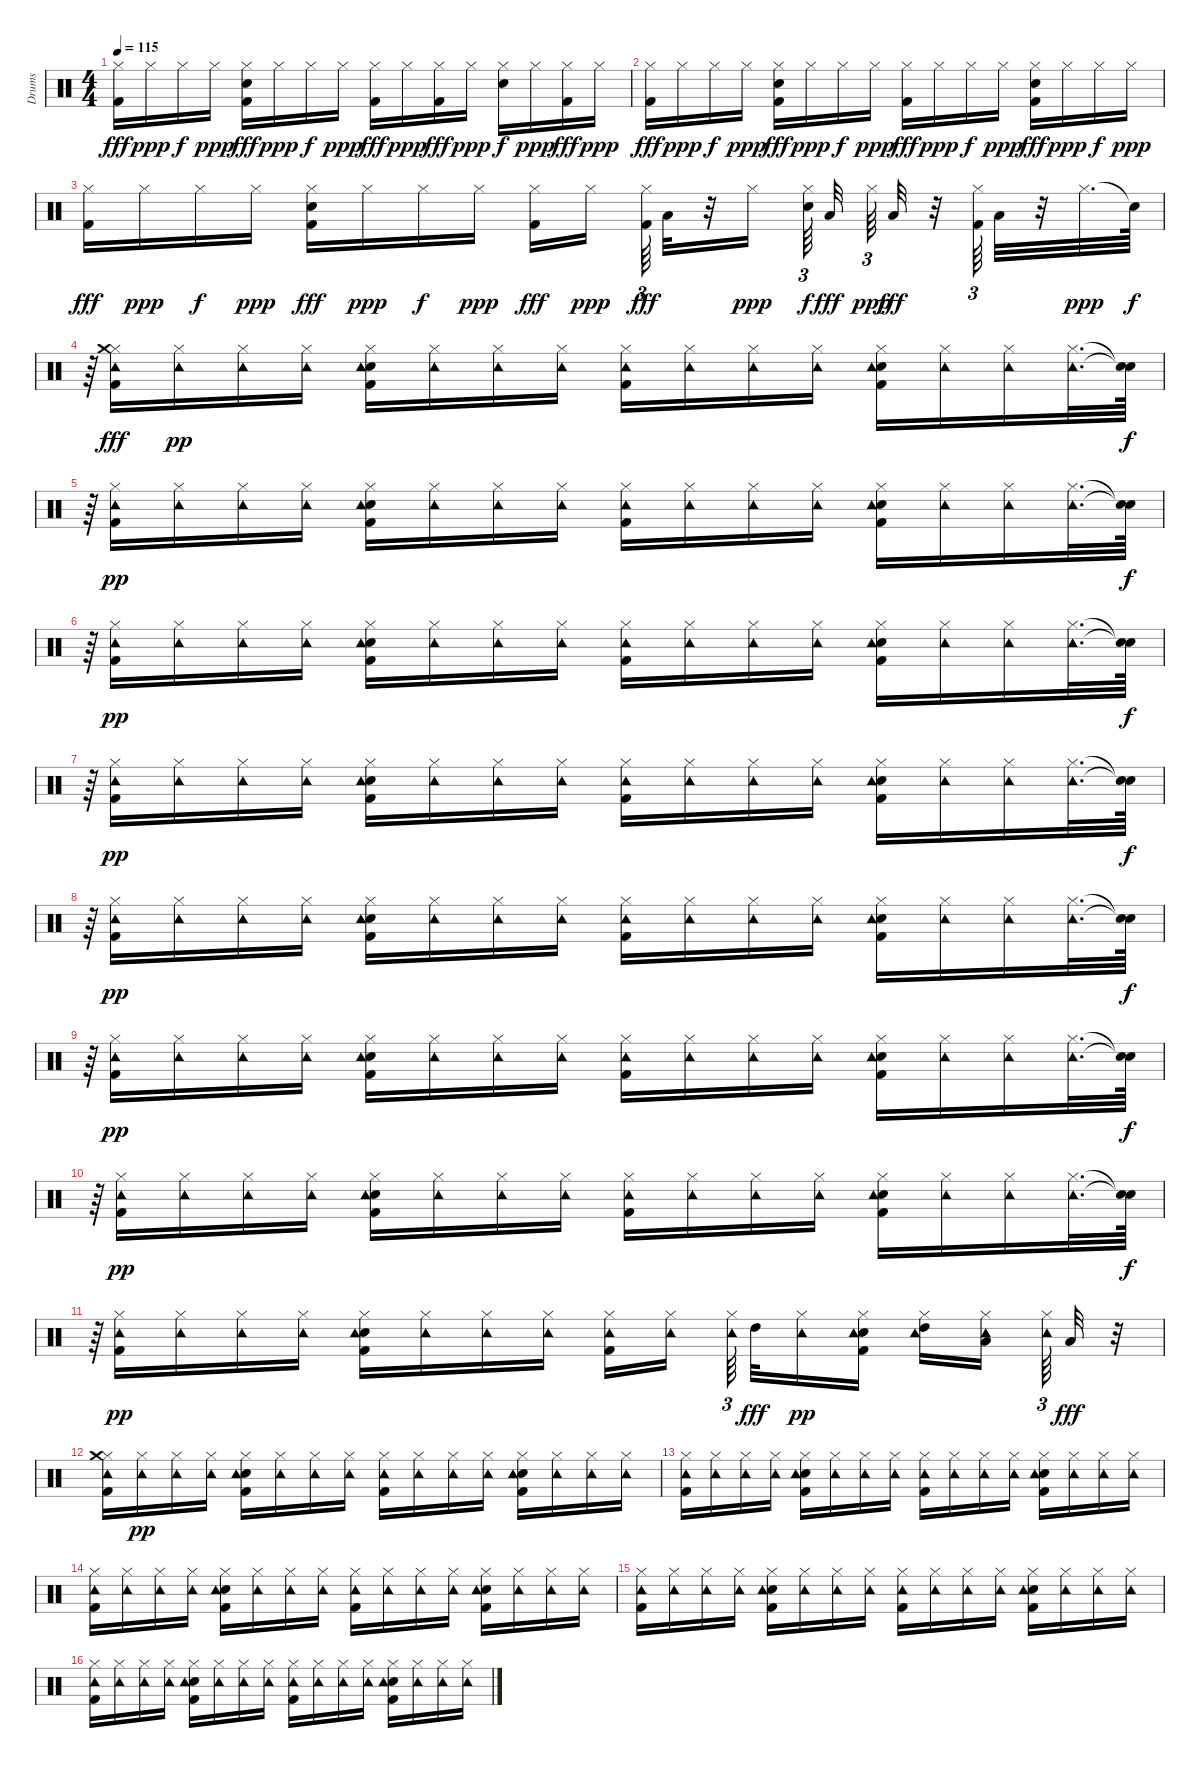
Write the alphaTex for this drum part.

\track ("Drums" "Drums") {instrument percussion}
\staff {score}
\articulation defaults
\ts (4 4)
\tempo 115
\clef neutral
\ks c
("Kick (hit) 2" "Hi-Hat (closed)").16{dy fff} "Hi-Hat (closed)".16{dy ppp} "Hi-Hat (closed)".16{dy f} "Hi-Hat (closed)".16{dy ppp} ("Kick (hit) 2" "Snare (hit) 2" "Hi-Hat (closed)").16{dy fff} "Hi-Hat (closed)".16{dy ppp} "Hi-Hat (closed)".16{dy f} "Hi-Hat (closed)".16{dy ppp} ("Kick (hit) 2" "Hi-Hat (closed)").16{dy fff} "Hi-Hat (closed)".16{dy ppp} ("Kick (hit) 2" "Hi-Hat (closed)").16{dy fff} "Hi-Hat (closed)".16{dy ppp} ("Snare (hit) 2" "Hi-Hat (closed)").16{dy f} "Hi-Hat (closed)".16{dy ppp} ("Kick (hit) 2" "Hi-Hat (closed)").16{dy fff} "Hi-Hat (closed)".16{dy ppp} |
("Kick (hit) 2" "Hi-Hat (closed)").16{dy fff} "Hi-Hat (closed)".16{dy ppp} "Hi-Hat (closed)".16{dy f} "Hi-Hat (closed)".16{dy ppp} ("Kick (hit) 2" "Snare (hit) 2" "Hi-Hat (closed)").16{dy fff} "Hi-Hat (closed)".16{dy ppp} "Hi-Hat (closed)".16{dy f} "Hi-Hat (closed)".16{dy ppp} ("Kick (hit) 2" "Hi-Hat (closed)").16{dy fff} "Hi-Hat (closed)".16{dy ppp} "Hi-Hat (closed)".16{dy f} "Hi-Hat (closed)".16{dy ppp} ("Kick (hit) 2" "Snare (hit) 2" "Hi-Hat (closed)").16{dy fff} "Hi-Hat (closed)".16{dy ppp} "Hi-Hat (closed)".16{dy f} "Hi-Hat (closed)".16{dy ppp} |
("Kick (hit) 2" "Hi-Hat (closed)").16{dy fff} "Hi-Hat (closed)".16{dy ppp} "Hi-Hat (closed)".16{dy f} "Hi-Hat (closed)".16{dy ppp} ("Kick (hit) 2" "Snare (hit) 2" "Hi-Hat (closed)").16{dy fff} "Hi-Hat (closed)".16{dy ppp} "Hi-Hat (closed)".16{dy f} "Hi-Hat (closed)".16{dy ppp} ("Kick (hit) 2" "Hi-Hat (closed)").16{dy fff} "Hi-Hat (closed)".16{dy ppp beam splitsecondary} ("Kick (hit) 2" "Hi-Hat (closed)").64{tu (3 2) dy fff} "Low Tom (hit)".32 r.32 "Hi-Hat (closed)".16{dy ppp} ("Snare (hit) 2" "Hi-Hat (closed)").64{tu (3 2) dy f beam splitsecondary} "Low Tom (hit)".32{dy fff beam splitsecondary} "Hi-Hat (closed)".64{tu (3 2) dy ppp} "Low Tom (hit)".32{dy fff} r.32 ("Kick (hit) 2" "Hi-Hat (closed)").64{tu (3 2)} "Low Floor Tom (hit)".32 r.32 "Hi-Hat (closed)".32{d dy ppp} "Snare (hit)"{t}.64{dy f} |
r.64{tu (3 2)} ("Kick (hit) 2" "Hi-Hat (closed)" "Tambourine (hit)" "Crash medium (hit)").16{dy fff} ("Hi-Hat (closed)" "Tambourine (hit)").16{dy pp} ("Hi-Hat (closed)" "Tambourine (hit)").16 ("Hi-Hat (closed)" "Tambourine (hit)").16 ("Kick (hit) 2" "Snare (hit) 2" "Hi-Hat (closed)" "Tambourine (hit)").16 ("Hi-Hat (closed)" "Tambourine (hit)").16 ("Hi-Hat (closed)" "Tambourine (hit)").16 ("Hi-Hat (closed)" "Tambourine (hit)").16 ("Kick (hit) 2" "Hi-Hat (closed)" "Tambourine (hit)").16 ("Hi-Hat (closed)" "Tambourine (hit)").16 ("Hi-Hat (closed)" "Tambourine (hit)").16 ("Hi-Hat (closed)" "Tambourine (hit)").16 ("Kick (hit) 2" "Snare (hit) 2" "Hi-Hat (closed)" "Tambourine (hit)").16 ("Hi-Hat (closed)" "Tambourine (hit)").16 ("Hi-Hat (closed)" "Tambourine (hit)").16 ("Hi-Hat (closed)" "Tambourine (hit)").32{d} ("Snare (hit)"{t} "Snare (hit)"{t}).64{dy f} |
r.64{tu (3 2)} ("Kick (hit) 2" "Hi-Hat (closed)" "Tambourine (hit)").16{dy pp} ("Hi-Hat (closed)" "Tambourine (hit)").16 ("Hi-Hat (closed)" "Tambourine (hit)").16 ("Hi-Hat (closed)" "Tambourine (hit)").16 ("Kick (hit) 2" "Snare (hit) 2" "Hi-Hat (closed)" "Tambourine (hit)").16 ("Hi-Hat (closed)" "Tambourine (hit)").16 ("Hi-Hat (closed)" "Tambourine (hit)").16 ("Hi-Hat (closed)" "Tambourine (hit)").16 ("Kick (hit) 2" "Hi-Hat (closed)" "Tambourine (hit)").16 ("Hi-Hat (closed)" "Tambourine (hit)").16 ("Hi-Hat (closed)" "Tambourine (hit)").16 ("Hi-Hat (closed)" "Tambourine (hit)").16 ("Kick (hit) 2" "Snare (hit) 2" "Hi-Hat (closed)" "Tambourine (hit)").16 ("Hi-Hat (closed)" "Tambourine (hit)").16 ("Hi-Hat (closed)" "Tambourine (hit)").16 ("Hi-Hat (closed)" "Tambourine (hit)").32{d} ("Snare (hit)"{t} "Snare (hit)"{t}).64{dy f} |
r.64{tu (3 2)} ("Kick (hit) 2" "Hi-Hat (closed)" "Tambourine (hit)").16{dy pp} ("Hi-Hat (closed)" "Tambourine (hit)").16 ("Hi-Hat (closed)" "Tambourine (hit)").16 ("Hi-Hat (closed)" "Tambourine (hit)").16 ("Kick (hit) 2" "Snare (hit) 2" "Hi-Hat (closed)" "Tambourine (hit)").16 ("Hi-Hat (closed)" "Tambourine (hit)").16 ("Hi-Hat (closed)" "Tambourine (hit)").16 ("Hi-Hat (closed)" "Tambourine (hit)").16 ("Kick (hit) 2" "Hi-Hat (closed)" "Tambourine (hit)").16 ("Hi-Hat (closed)" "Tambourine (hit)").16 ("Hi-Hat (closed)" "Tambourine (hit)").16 ("Hi-Hat (closed)" "Tambourine (hit)").16 ("Kick (hit) 2" "Snare (hit) 2" "Hi-Hat (closed)" "Tambourine (hit)").16 ("Hi-Hat (closed)" "Tambourine (hit)").16 ("Hi-Hat (closed)" "Tambourine (hit)").16 ("Hi-Hat (closed)" "Tambourine (hit)").32{d} ("Snare (hit)"{t} "Snare (hit)"{t}).64{dy f} |
r.64{tu (3 2)} ("Kick (hit) 2" "Hi-Hat (closed)" "Tambourine (hit)").16{dy pp} ("Hi-Hat (closed)" "Tambourine (hit)").16 ("Hi-Hat (closed)" "Tambourine (hit)").16 ("Hi-Hat (closed)" "Tambourine (hit)").16 ("Kick (hit) 2" "Snare (hit) 2" "Hi-Hat (closed)" "Tambourine (hit)").16 ("Hi-Hat (closed)" "Tambourine (hit)").16 ("Hi-Hat (closed)" "Tambourine (hit)").16 ("Hi-Hat (closed)" "Tambourine (hit)").16 ("Kick (hit) 2" "Hi-Hat (closed)" "Tambourine (hit)").16 ("Hi-Hat (closed)" "Tambourine (hit)").16 ("Hi-Hat (closed)" "Tambourine (hit)").16 ("Hi-Hat (closed)" "Tambourine (hit)").16 ("Kick (hit) 2" "Snare (hit) 2" "Hi-Hat (closed)" "Tambourine (hit)").16 ("Hi-Hat (closed)" "Tambourine (hit)").16 ("Hi-Hat (closed)" "Tambourine (hit)").16 ("Hi-Hat (closed)" "Tambourine (hit)").32{d} ("Snare (hit)"{t} "Snare (hit)"{t}).64{dy f} |
r.64{tu (3 2)} ("Kick (hit) 2" "Hi-Hat (closed)" "Tambourine (hit)").16{dy pp} ("Hi-Hat (closed)" "Tambourine (hit)").16 ("Hi-Hat (closed)" "Tambourine (hit)").16 ("Hi-Hat (closed)" "Tambourine (hit)").16 ("Kick (hit) 2" "Snare (hit) 2" "Hi-Hat (closed)" "Tambourine (hit)").16 ("Hi-Hat (closed)" "Tambourine (hit)").16 ("Hi-Hat (closed)" "Tambourine (hit)").16 ("Hi-Hat (closed)" "Tambourine (hit)").16 ("Kick (hit) 2" "Hi-Hat (closed)" "Tambourine (hit)").16 ("Hi-Hat (closed)" "Tambourine (hit)").16 ("Hi-Hat (closed)" "Tambourine (hit)").16 ("Hi-Hat (closed)" "Tambourine (hit)").16 ("Kick (hit) 2" "Snare (hit) 2" "Hi-Hat (closed)" "Tambourine (hit)").16 ("Hi-Hat (closed)" "Tambourine (hit)").16 ("Hi-Hat (closed)" "Tambourine (hit)").16 ("Hi-Hat (closed)" "Tambourine (hit)").32{d} ("Snare (hit)"{t} "Snare (hit)"{t}).64{dy f} |
r.64{tu (3 2)} ("Kick (hit) 2" "Hi-Hat (closed)" "Tambourine (hit)").16{dy pp} ("Hi-Hat (closed)" "Tambourine (hit)").16 ("Hi-Hat (closed)" "Tambourine (hit)").16 ("Hi-Hat (closed)" "Tambourine (hit)").16 ("Kick (hit) 2" "Snare (hit) 2" "Hi-Hat (closed)" "Tambourine (hit)").16 ("Hi-Hat (closed)" "Tambourine (hit)").16 ("Hi-Hat (closed)" "Tambourine (hit)").16 ("Hi-Hat (closed)" "Tambourine (hit)").16 ("Kick (hit) 2" "Hi-Hat (closed)" "Tambourine (hit)").16 ("Hi-Hat (closed)" "Tambourine (hit)").16 ("Hi-Hat (closed)" "Tambourine (hit)").16 ("Hi-Hat (closed)" "Tambourine (hit)").16 ("Kick (hit) 2" "Snare (hit) 2" "Hi-Hat (closed)" "Tambourine (hit)").16 ("Hi-Hat (closed)" "Tambourine (hit)").16 ("Hi-Hat (closed)" "Tambourine (hit)").16 ("Hi-Hat (closed)" "Tambourine (hit)").32{d} ("Snare (hit)"{t} "Snare (hit)"{t}).64{dy f} |
r.64{tu (3 2)} ("Kick (hit) 2" "Hi-Hat (closed)" "Tambourine (hit)").16{dy pp} ("Hi-Hat (closed)" "Tambourine (hit)").16 ("Hi-Hat (closed)" "Tambourine (hit)").16 ("Hi-Hat (closed)" "Tambourine (hit)").16 ("Kick (hit) 2" "Snare (hit) 2" "Hi-Hat (closed)" "Tambourine (hit)").16 ("Hi-Hat (closed)" "Tambourine (hit)").16 ("Hi-Hat (closed)" "Tambourine (hit)").16 ("Hi-Hat (closed)" "Tambourine (hit)").16 ("Kick (hit) 2" "Hi-Hat (closed)" "Tambourine (hit)").16 ("Hi-Hat (closed)" "Tambourine (hit)").16 ("Hi-Hat (closed)" "Tambourine (hit)").16 ("Hi-Hat (closed)" "Tambourine (hit)").16 ("Kick (hit) 2" "Snare (hit) 2" "Hi-Hat (closed)" "Tambourine (hit)").16 ("Hi-Hat (closed)" "Tambourine (hit)").16 ("Hi-Hat (closed)" "Tambourine (hit)").16 ("Hi-Hat (closed)" "Tambourine (hit)").32{d} ("Snare (hit)"{t} "Snare (hit)"{t}).64{dy f} |
r.64{tu (3 2)} ("Kick (hit) 2" "Hi-Hat (closed)" "Tambourine (hit)").16{dy pp} ("Hi-Hat (closed)" "Tambourine (hit)").16 ("Hi-Hat (closed)" "Tambourine (hit)").16 ("Hi-Hat (closed)" "Tambourine (hit)").16 ("Kick (hit) 2" "Snare (hit) 2" "Hi-Hat (closed)" "Tambourine (hit)").16 ("Hi-Hat (closed)" "Tambourine (hit)").16 ("Hi-Hat (closed)" "Tambourine (hit)").16 ("Hi-Hat (closed)" "Tambourine (hit)").16 ("Kick (hit) 2" "Hi-Hat (closed)" "Tambourine (hit)").16 ("Hi-Hat (closed)" "Tambourine (hit)").16{beam splitsecondary} ("Hi-Hat (closed)" "Tambourine (hit)").64{tu (3 2) beam splitsecondary} "High Tom (hit)".32{dy fff} ("Hi-Hat (closed)" "Tambourine (hit)").16{dy pp} ("Kick (hit) 2" "Snare (hit) 2" "Hi-Hat (closed)" "Tambourine (hit)").16 ("Hi-Hat (closed)" "High Tom (hit)" "Tambourine (hit)").16 ("Hi-Hat (closed)" "Low Tom (hit)" "Tambourine (hit)").16{beam splitsecondary} ("Hi-Hat (closed)" "Tambourine (hit)").64{tu (3 2)} "Low Floor Tom (hit)".32{dy fff} r.32 |
("Kick (hit) 2" "Hi-Hat (closed)" "Tambourine (hit)" "Crash medium (hit)").16 ("Hi-Hat (closed)" "Tambourine (hit)").16{dy pp} ("Hi-Hat (closed)" "Tambourine (hit)").16 ("Hi-Hat (closed)" "Tambourine (hit)").16 ("Kick (hit) 2" "Snare (hit) 2" "Hi-Hat (closed)" "Tambourine (hit)").16 ("Hi-Hat (closed)" "Tambourine (hit)").16 ("Hi-Hat (closed)" "Tambourine (hit)").16 ("Hi-Hat (closed)" "Tambourine (hit)").16 ("Kick (hit) 2" "Hi-Hat (closed)" "Tambourine (hit)").16 ("Hi-Hat (closed)" "Tambourine (hit)").16 ("Hi-Hat (closed)" "Tambourine (hit)").16 ("Hi-Hat (closed)" "Tambourine (hit)").16 ("Kick (hit) 2" "Snare (hit) 2" "Hi-Hat (closed)" "Tambourine (hit)").16 ("Hi-Hat (closed)" "Tambourine (hit)").16 ("Hi-Hat (closed)" "Tambourine (hit)").16 ("Hi-Hat (closed)" "Tambourine (hit)").16 |
("Kick (hit) 2" "Hi-Hat (closed)" "Tambourine (hit)").16 ("Hi-Hat (closed)" "Tambourine (hit)").16 ("Hi-Hat (closed)" "Tambourine (hit)").16 ("Hi-Hat (closed)" "Tambourine (hit)").16 ("Kick (hit) 2" "Snare (hit) 2" "Hi-Hat (closed)" "Tambourine (hit)").16 ("Hi-Hat (closed)" "Tambourine (hit)").16 ("Hi-Hat (closed)" "Tambourine (hit)").16 ("Hi-Hat (closed)" "Tambourine (hit)").16 ("Kick (hit) 2" "Hi-Hat (closed)" "Tambourine (hit)").16 ("Hi-Hat (closed)" "Tambourine (hit)").16 ("Hi-Hat (closed)" "Tambourine (hit)").16 ("Hi-Hat (closed)" "Tambourine (hit)").16 ("Kick (hit) 2" "Snare (hit) 2" "Hi-Hat (closed)" "Tambourine (hit)").16 ("Hi-Hat (closed)" "Tambourine (hit)").16 ("Hi-Hat (closed)" "Tambourine (hit)").16 ("Hi-Hat (closed)" "Tambourine (hit)").16 |
("Kick (hit) 2" "Hi-Hat (closed)" "Tambourine (hit)").16 ("Hi-Hat (closed)" "Tambourine (hit)").16 ("Hi-Hat (closed)" "Tambourine (hit)").16 ("Hi-Hat (closed)" "Tambourine (hit)").16 ("Kick (hit) 2" "Snare (hit) 2" "Hi-Hat (closed)" "Tambourine (hit)").16 ("Hi-Hat (closed)" "Tambourine (hit)").16 ("Hi-Hat (closed)" "Tambourine (hit)").16 ("Hi-Hat (closed)" "Tambourine (hit)").16 ("Kick (hit) 2" "Hi-Hat (closed)" "Tambourine (hit)").16 ("Hi-Hat (closed)" "Tambourine (hit)").16 ("Hi-Hat (closed)" "Tambourine (hit)").16 ("Hi-Hat (closed)" "Tambourine (hit)").16 ("Kick (hit) 2" "Snare (hit) 2" "Hi-Hat (closed)" "Tambourine (hit)").16 ("Hi-Hat (closed)" "Tambourine (hit)").16 ("Hi-Hat (closed)" "Tambourine (hit)").16 ("Hi-Hat (closed)" "Tambourine (hit)").16 |
("Kick (hit) 2" "Hi-Hat (closed)" "Tambourine (hit)").16 ("Hi-Hat (closed)" "Tambourine (hit)").16 ("Hi-Hat (closed)" "Tambourine (hit)").16 ("Hi-Hat (closed)" "Tambourine (hit)").16 ("Kick (hit) 2" "Snare (hit) 2" "Hi-Hat (closed)" "Tambourine (hit)").16 ("Hi-Hat (closed)" "Tambourine (hit)").16 ("Hi-Hat (closed)" "Tambourine (hit)").16 ("Hi-Hat (closed)" "Tambourine (hit)").16 ("Kick (hit) 2" "Hi-Hat (closed)" "Tambourine (hit)").16 ("Hi-Hat (closed)" "Tambourine (hit)").16 ("Hi-Hat (closed)" "Tambourine (hit)").16 ("Hi-Hat (closed)" "Tambourine (hit)").16 ("Kick (hit) 2" "Snare (hit) 2" "Hi-Hat (closed)" "Tambourine (hit)").16 ("Hi-Hat (closed)" "Tambourine (hit)").16 ("Hi-Hat (closed)" "Tambourine (hit)").16 ("Hi-Hat (closed)" "Tambourine (hit)").16 |
("Kick (hit) 2" "Hi-Hat (closed)" "Tambourine (hit)").16 ("Hi-Hat (closed)" "Tambourine (hit)").16 ("Hi-Hat (closed)" "Tambourine (hit)").16 ("Hi-Hat (closed)" "Tambourine (hit)").16 ("Kick (hit) 2" "Snare (hit) 2" "Hi-Hat (closed)" "Tambourine (hit)").16 ("Hi-Hat (closed)" "Tambourine (hit)").16 ("Hi-Hat (closed)" "Tambourine (hit)").16 ("Hi-Hat (closed)" "Tambourine (hit)").16 ("Kick (hit) 2" "Hi-Hat (closed)" "Tambourine (hit)").16 ("Hi-Hat (closed)" "Tambourine (hit)").16 ("Hi-Hat (closed)" "Tambourine (hit)").16 ("Hi-Hat (closed)" "Tambourine (hit)").16 ("Kick (hit) 2" "Snare (hit) 2" "Hi-Hat (closed)" "Tambourine (hit)").16 ("Hi-Hat (closed)" "Tambourine (hit)").16 ("Hi-Hat (closed)" "Tambourine (hit)").16 ("Hi-Hat (closed)" "Tambourine (hit)").16
